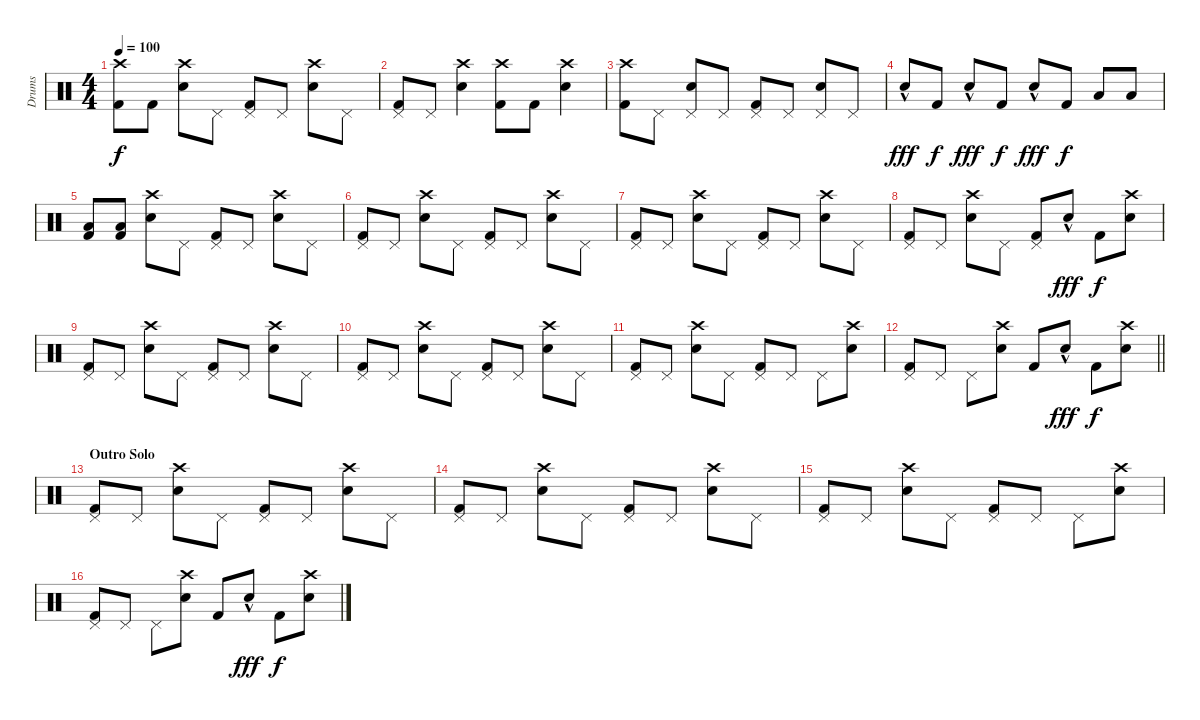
\track ("Drums" "Drums") {instrument percussion}
\staff {score}
\articulation defaults
\ts (4 4)
\tempo 100
\clef neutral
\ks c
("Crash high (hit)" "Kick (hit) 2").8{dy f} "Kick (hit) 2".8 ("Crash high (hit)" "Electric Snare (hit)").8 "Pedal Hi-Hat (hit)".8 ("Pedal Hi-Hat (hit)" "Kick (hit) 2").8 "Pedal Hi-Hat (hit)".8 ("Crash high (hit)" "Electric Snare (hit)").8 "Pedal Hi-Hat (hit)".8 |
("Pedal Hi-Hat (hit)" "Kick (hit) 2").8 "Pedal Hi-Hat (hit)".8 ("Crash high (hit)" "Electric Snare (hit)").4 ("Crash high (hit)" "Kick (hit) 2").8 "Kick (hit) 2".8 ("Crash high (hit)" "Electric Snare (hit)").4 |
("Crash high (hit)" "Kick (hit) 2").8 "Pedal Hi-Hat (hit)".8 ("Pedal Hi-Hat (hit)" "Electric Snare (hit)").8 "Pedal Hi-Hat (hit)".8 ("Pedal Hi-Hat (hit)" "Kick (hit) 2").8 "Pedal Hi-Hat (hit)".8 ("Pedal Hi-Hat (hit)" "Electric Snare (hit)").8 "Pedal Hi-Hat (hit)".8 |
"Electric Snare (hit)"{hac}.8{dy fff} "Kick (hit) 2".8{dy f} "Electric Snare (hit)"{hac}.8{dy fff} "Kick (hit) 2".8{dy f} "Electric Snare (hit)"{hac}.8{dy fff} "Kick (hit) 2".8{dy f} "Low Tom (hit)".8 "Low Tom (hit)".8 |
("Kick (hit) 2" "Low Floor Tom (hit)").8 ("Kick (hit) 2" "Low Floor Tom (hit)").8 ("Crash high (hit)" "Electric Snare (hit)").8 "Pedal Hi-Hat (hit)".8 ("Pedal Hi-Hat (hit)" "Kick (hit) 2").8 "Pedal Hi-Hat (hit)".8 ("Crash high (hit)" "Electric Snare (hit)").8 "Pedal Hi-Hat (hit)".8 |
("Pedal Hi-Hat (hit)" "Kick (hit) 2").8 "Pedal Hi-Hat (hit)".8 ("Crash high (hit)" "Electric Snare (hit)").8 "Pedal Hi-Hat (hit)".8 ("Pedal Hi-Hat (hit)" "Kick (hit) 2").8 "Pedal Hi-Hat (hit)".8 ("Crash high (hit)" "Electric Snare (hit)").8 "Pedal Hi-Hat (hit)".8 |
("Pedal Hi-Hat (hit)" "Kick (hit) 2").8 "Pedal Hi-Hat (hit)".8 ("Crash high (hit)" "Electric Snare (hit)").8 "Pedal Hi-Hat (hit)".8 ("Pedal Hi-Hat (hit)" "Kick (hit) 2").8 "Pedal Hi-Hat (hit)".8 ("Crash high (hit)" "Electric Snare (hit)").8 "Pedal Hi-Hat (hit)".8 |
("Pedal Hi-Hat (hit)" "Kick (hit) 2").8 "Pedal Hi-Hat (hit)".8 ("Crash high (hit)" "Electric Snare (hit)").8 "Pedal Hi-Hat (hit)".8 ("Pedal Hi-Hat (hit)" "Kick (hit) 2").8 "Electric Snare (hit)"{hac}.8{dy fff} "Kick (hit) 2".8{dy f} ("Crash high (hit)" "Electric Snare (hit)").8 |
("Pedal Hi-Hat (hit)" "Kick (hit) 2").8 "Pedal Hi-Hat (hit)".8 ("Crash high (hit)" "Electric Snare (hit)").8 "Pedal Hi-Hat (hit)".8 ("Pedal Hi-Hat (hit)" "Kick (hit) 2").8 "Pedal Hi-Hat (hit)".8 ("Crash high (hit)" "Electric Snare (hit)").8 "Pedal Hi-Hat (hit)".8 |
("Pedal Hi-Hat (hit)" "Kick (hit) 2").8 "Pedal Hi-Hat (hit)".8 ("Crash high (hit)" "Electric Snare (hit)").8 "Pedal Hi-Hat (hit)".8 ("Pedal Hi-Hat (hit)" "Kick (hit) 2").8 "Pedal Hi-Hat (hit)".8 ("Crash high (hit)" "Electric Snare (hit)").8 "Pedal Hi-Hat (hit)".8 |
("Pedal Hi-Hat (hit)" "Kick (hit) 2").8 "Pedal Hi-Hat (hit)".8 ("Crash high (hit)" "Electric Snare (hit)").8 "Pedal Hi-Hat (hit)".8 ("Pedal Hi-Hat (hit)" "Kick (hit) 2").8 "Pedal Hi-Hat (hit)".8 "Pedal Hi-Hat (hit)".8 ("Crash high (hit)" "Electric Snare (hit)").8 |
\barLineRight lightlight
("Pedal Hi-Hat (hit)" "Kick (hit) 2").8 "Pedal Hi-Hat (hit)".8 "Pedal Hi-Hat (hit)".8 ("Crash high (hit)" "Electric Snare (hit)").8 "Kick (hit) 2".8 "Electric Snare (hit)"{hac}.8{dy fff} "Kick (hit) 2".8{dy f} ("Crash high (hit)" "Electric Snare (hit)").8 |
\section ("" "Outro Solo")
("Pedal Hi-Hat (hit)" "Kick (hit) 2").8 "Pedal Hi-Hat (hit)".8 ("Crash high (hit)" "Electric Snare (hit)").8 "Pedal Hi-Hat (hit)".8 ("Pedal Hi-Hat (hit)" "Kick (hit) 2").8 "Pedal Hi-Hat (hit)".8 ("Crash high (hit)" "Electric Snare (hit)").8 "Pedal Hi-Hat (hit)".8 |
("Pedal Hi-Hat (hit)" "Kick (hit) 2").8 "Pedal Hi-Hat (hit)".8 ("Crash high (hit)" "Electric Snare (hit)").8 "Pedal Hi-Hat (hit)".8 ("Pedal Hi-Hat (hit)" "Kick (hit) 2").8 "Pedal Hi-Hat (hit)".8 ("Crash high (hit)" "Electric Snare (hit)").8 "Pedal Hi-Hat (hit)".8 |
("Pedal Hi-Hat (hit)" "Kick (hit) 2").8 "Pedal Hi-Hat (hit)".8 ("Crash high (hit)" "Electric Snare (hit)").8 "Pedal Hi-Hat (hit)".8 ("Pedal Hi-Hat (hit)" "Kick (hit) 2").8 "Pedal Hi-Hat (hit)".8 "Pedal Hi-Hat (hit)".8 ("Crash high (hit)" "Electric Snare (hit)").8 |
("Pedal Hi-Hat (hit)" "Kick (hit) 2").8 "Pedal Hi-Hat (hit)".8 "Pedal Hi-Hat (hit)".8 ("Crash high (hit)" "Electric Snare (hit)").8 "Kick (hit) 2".8 "Electric Snare (hit)"{hac}.8{dy fff} "Kick (hit) 2".8{dy f} ("Crash high (hit)" "Electric Snare (hit)").8
